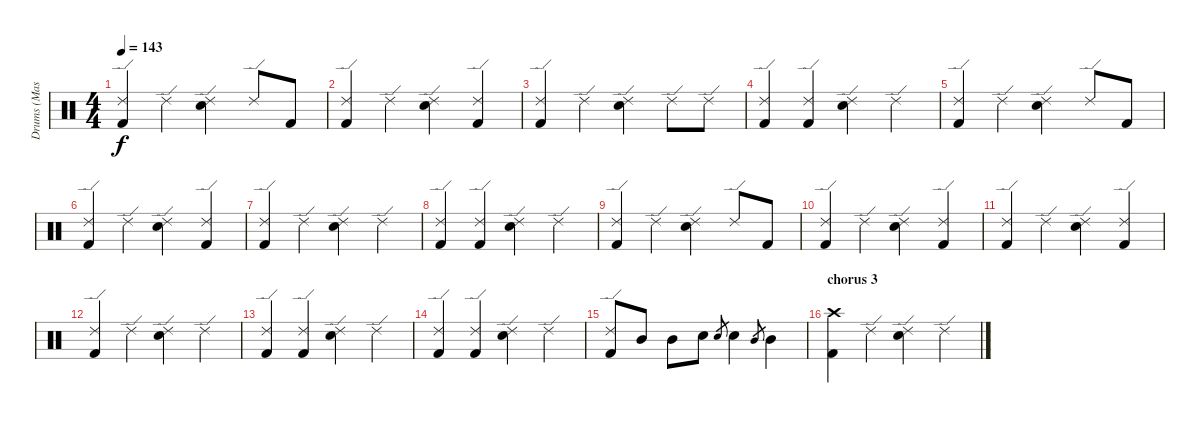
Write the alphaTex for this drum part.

\track ("Drums (Mason)" "Drums (Mas") {instrument percussion}
\staff {score}
\articulation defaults
\ts (4 4)
\tempo 143
\clef neutral
\ks c
("Ride (edge) 2" "Kick (hit) 2").4{dy f} "Ride (edge) 2".4 ("Ride (edge) 2" "Electric Snare (hit)").4 "Ride (edge) 2".8 "Kick (hit) 2".8 |
("Ride (edge) 2" "Kick (hit) 2").4 "Ride (edge) 2".4 ("Ride (edge) 2" "Electric Snare (hit)").4 ("Ride (edge) 2" "Kick (hit) 2").4 |
("Ride (edge) 2" "Kick (hit) 2").4 "Ride (edge) 2".4 ("Ride (edge) 2" "Electric Snare (hit)").4 "Ride (edge) 2".8 "Ride (edge) 2".8 |
("Ride (edge) 2" "Kick (hit) 2").4 ("Ride (edge) 2" "Kick (hit) 2").4 ("Ride (edge) 2" "Electric Snare (hit)").4 "Ride (edge) 2".4 |
("Ride (edge) 2" "Kick (hit) 2").4 "Ride (edge) 2".4 ("Ride (edge) 2" "Electric Snare (hit)").4 "Ride (edge) 2".8 "Kick (hit) 2".8 |
("Ride (edge) 2" "Kick (hit) 2").4 "Ride (edge) 2".4 ("Ride (edge) 2" "Electric Snare (hit)").4 ("Ride (edge) 2" "Kick (hit) 2").4 |
("Ride (edge) 2" "Kick (hit) 2").4 "Ride (edge) 2".4 ("Ride (edge) 2" "Electric Snare (hit)").4 "Ride (edge) 2".4 |
("Ride (edge) 2" "Kick (hit) 2").4 ("Ride (edge) 2" "Kick (hit) 2").4 ("Ride (edge) 2" "Electric Snare (hit)").4 "Ride (edge) 2".4 |
("Ride (edge) 2" "Kick (hit) 2").4 "Ride (edge) 2".4 ("Ride (edge) 2" "Electric Snare (hit)").4 "Ride (edge) 2".8 "Kick (hit) 2".8 |
("Ride (edge) 2" "Kick (hit) 2").4 "Ride (edge) 2".4 ("Ride (edge) 2" "Electric Snare (hit)").4 ("Ride (edge) 2" "Kick (hit) 2").4 |
("Ride (edge) 2" "Kick (hit) 2").4 "Ride (edge) 2".4 ("Ride (edge) 2" "Electric Snare (hit)").4 ("Ride (edge) 2" "Kick (hit) 2").4 |
("Ride (edge) 2" "Kick (hit) 2").4 "Ride (edge) 2".4 ("Ride (edge) 2" "Electric Snare (hit)").4 "Ride (edge) 2".4 |
("Ride (edge) 2" "Kick (hit) 2").4 ("Ride (edge) 2" "Kick (hit) 2").4 ("Ride (edge) 2" "Electric Snare (hit)").4 "Ride (edge) 2".4 |
("Ride (edge) 2" "Kick (hit) 2").4 ("Ride (edge) 2" "Kick (hit) 2").4 ("Ride (edge) 2" "Electric Snare (hit)").4 "Ride (edge) 2".4 |
("Ride (edge) 2" "Kick (hit) 2").8 "Mid Tom (hit)".8 "Mid Tom (hit)".8 "Electric Snare (hit)".8 "Electric Snare (hit)".8{gr} "Electric Snare (hit)".4 "Mid Tom (hit)".8{gr} "Mid Tom (hit)".4 |
\section ("" "chorus 3")
("Crash high (hit)" "Kick (hit) 2").4 "Ride (edge) 2".4 ("Ride (edge) 2" "Electric Snare (hit)").4 "Ride (edge) 2".4
